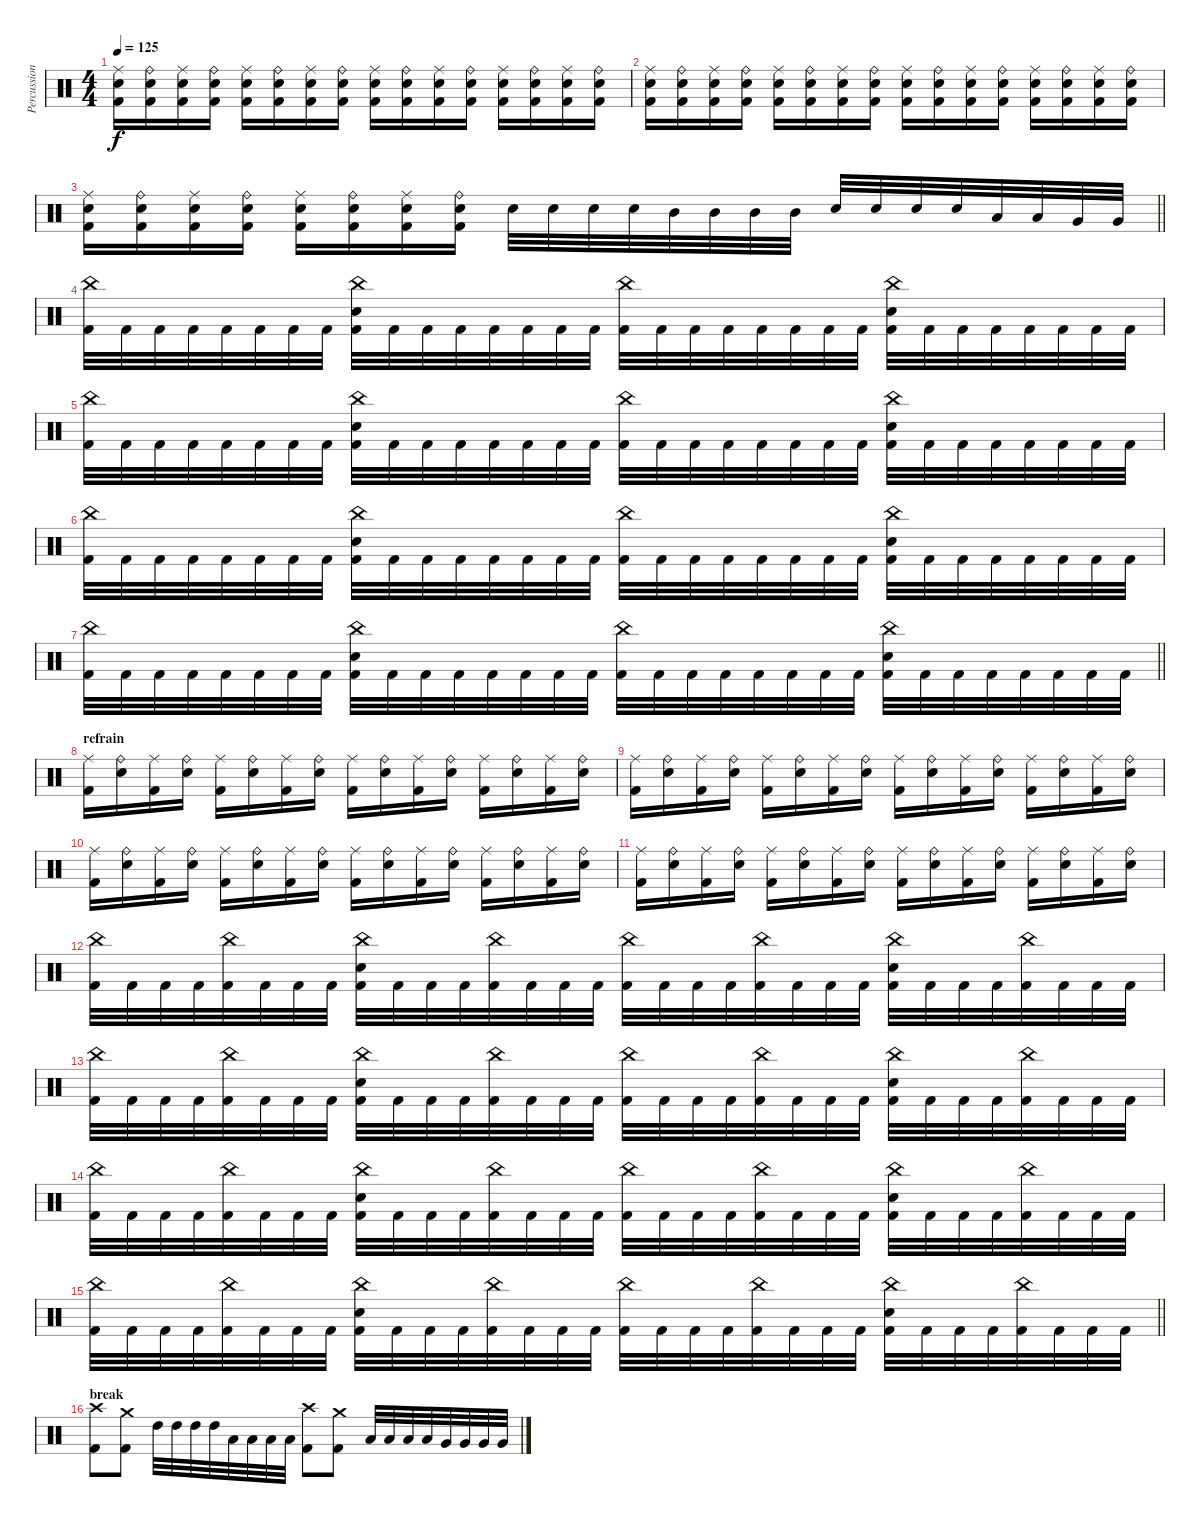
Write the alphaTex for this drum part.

\track ("Percussions" "Percussion") {instrument percussion}
\staff {score}
\articulation defaults
\ts (4 4)
\tempo 125
\clef neutral
\ks c
("Kick (hit) 2" "Electric Snare (hit)" "Ride (middle)").16{dy f} ("Kick (hit) 2" "Electric Snare (hit)" "Ride (bell)").16 ("Kick (hit) 2" "Electric Snare (hit)" "Ride (middle)").16 ("Kick (hit) 2" "Electric Snare (hit)" "Ride (bell)").16 ("Kick (hit) 2" "Electric Snare (hit)" "Ride (middle)").16 ("Kick (hit) 2" "Electric Snare (hit)" "Ride (bell)").16 ("Kick (hit) 2" "Electric Snare (hit)" "Ride (middle)").16 ("Kick (hit) 2" "Electric Snare (hit)" "Ride (bell)").16 ("Kick (hit) 2" "Electric Snare (hit)" "Ride (middle)").16 ("Kick (hit) 2" "Electric Snare (hit)" "Ride (bell)").16 ("Kick (hit) 2" "Electric Snare (hit)" "Ride (middle)").16 ("Kick (hit) 2" "Electric Snare (hit)" "Ride (bell)").16 ("Kick (hit) 2" "Electric Snare (hit)" "Ride (middle)").16 ("Kick (hit) 2" "Electric Snare (hit)" "Ride (bell)").16 ("Kick (hit) 2" "Electric Snare (hit)" "Ride (middle)").16 ("Kick (hit) 2" "Electric Snare (hit)" "Ride (bell)").16 |
("Kick (hit) 2" "Electric Snare (hit)" "Ride (middle)").16 ("Kick (hit) 2" "Electric Snare (hit)" "Ride (bell)").16 ("Kick (hit) 2" "Electric Snare (hit)" "Ride (middle)").16 ("Kick (hit) 2" "Electric Snare (hit)" "Ride (bell)").16 ("Kick (hit) 2" "Electric Snare (hit)" "Ride (middle)").16 ("Kick (hit) 2" "Electric Snare (hit)" "Ride (bell)").16 ("Kick (hit) 2" "Electric Snare (hit)" "Ride (middle)").16 ("Kick (hit) 2" "Electric Snare (hit)" "Ride (bell)").16 ("Kick (hit) 2" "Electric Snare (hit)" "Ride (middle)").16 ("Kick (hit) 2" "Electric Snare (hit)" "Ride (bell)").16 ("Kick (hit) 2" "Electric Snare (hit)" "Ride (middle)").16 ("Kick (hit) 2" "Electric Snare (hit)" "Ride (bell)").16 ("Kick (hit) 2" "Electric Snare (hit)" "Ride (middle)").16 ("Kick (hit) 2" "Electric Snare (hit)" "Ride (bell)").16 ("Kick (hit) 2" "Electric Snare (hit)" "Ride (middle)").16 ("Kick (hit) 2" "Electric Snare (hit)" "Ride (bell)").16 |
\barLineRight lightlight
("Kick (hit) 2" "Electric Snare (hit)" "Ride (middle)").16 ("Kick (hit) 2" "Electric Snare (hit)" "Ride (bell)").16 ("Kick (hit) 2" "Electric Snare (hit)" "Ride (middle)").16 ("Kick (hit) 2" "Electric Snare (hit)" "Ride (bell)").16 ("Kick (hit) 2" "Electric Snare (hit)" "Ride (middle)").16 ("Kick (hit) 2" "Electric Snare (hit)" "Ride (bell)").16 ("Kick (hit) 2" "Electric Snare (hit)" "Ride (middle)").16 ("Kick (hit) 2" "Electric Snare (hit)" "Ride (bell)").16 "Electric Snare (hit)".32 "Electric Snare (hit)".32 "Electric Snare (hit)".32 "Electric Snare (hit)".32 "Mid Tom (hit)".32 "Mid Tom (hit)".32 "Mid Tom (hit)".32 "Mid Tom (hit)".32 "Electric Snare (hit)".32 "Electric Snare (hit)".32 "Electric Snare (hit)".32 "Electric Snare (hit)".32 "Low Tom (hit)".32 "Low Tom (hit)".32 "Very Low Tom (hit)".32 "Very Low Tom (hit)".32 |
("Kick (hit) 2" "China (hit)").32 "Kick (hit) 2".32 "Kick (hit) 2".32 "Kick (hit) 2".32 "Kick (hit) 2".32 "Kick (hit) 2".32 "Kick (hit) 2".32 "Kick (hit) 2".32 ("Kick (hit) 2" "Electric Snare (hit)" "China (hit)").32 "Kick (hit) 2".32 "Kick (hit) 2".32 "Kick (hit) 2".32 "Kick (hit) 2".32 "Kick (hit) 2".32 "Kick (hit) 2".32 "Kick (hit) 2".32 ("Kick (hit) 2" "China (hit)").32 "Kick (hit) 2".32 "Kick (hit) 2".32 "Kick (hit) 2".32 "Kick (hit) 2".32 "Kick (hit) 2".32 "Kick (hit) 2".32 "Kick (hit) 2".32 ("Kick (hit) 2" "Electric Snare (hit)" "China (hit)").32 "Kick (hit) 2".32 "Kick (hit) 2".32 "Kick (hit) 2".32 "Kick (hit) 2".32 "Kick (hit) 2".32 "Kick (hit) 2".32 "Kick (hit) 2".32 |
("Kick (hit) 2" "China (hit)").32 "Kick (hit) 2".32 "Kick (hit) 2".32 "Kick (hit) 2".32 "Kick (hit) 2".32 "Kick (hit) 2".32 "Kick (hit) 2".32 "Kick (hit) 2".32 ("Kick (hit) 2" "Electric Snare (hit)" "China (hit)").32 "Kick (hit) 2".32 "Kick (hit) 2".32 "Kick (hit) 2".32 "Kick (hit) 2".32 "Kick (hit) 2".32 "Kick (hit) 2".32 "Kick (hit) 2".32 ("Kick (hit) 2" "China (hit)").32 "Kick (hit) 2".32 "Kick (hit) 2".32 "Kick (hit) 2".32 "Kick (hit) 2".32 "Kick (hit) 2".32 "Kick (hit) 2".32 "Kick (hit) 2".32 ("Kick (hit) 2" "Electric Snare (hit)" "China (hit)").32 "Kick (hit) 2".32 "Kick (hit) 2".32 "Kick (hit) 2".32 "Kick (hit) 2".32 "Kick (hit) 2".32 "Kick (hit) 2".32 "Kick (hit) 2".32 |
("Kick (hit) 2" "China (hit)").32 "Kick (hit) 2".32 "Kick (hit) 2".32 "Kick (hit) 2".32 "Kick (hit) 2".32 "Kick (hit) 2".32 "Kick (hit) 2".32 "Kick (hit) 2".32 ("Kick (hit) 2" "Electric Snare (hit)" "China (hit)").32 "Kick (hit) 2".32 "Kick (hit) 2".32 "Kick (hit) 2".32 "Kick (hit) 2".32 "Kick (hit) 2".32 "Kick (hit) 2".32 "Kick (hit) 2".32 ("Kick (hit) 2" "China (hit)").32 "Kick (hit) 2".32 "Kick (hit) 2".32 "Kick (hit) 2".32 "Kick (hit) 2".32 "Kick (hit) 2".32 "Kick (hit) 2".32 "Kick (hit) 2".32 ("Kick (hit) 2" "Electric Snare (hit)" "China (hit)").32 "Kick (hit) 2".32 "Kick (hit) 2".32 "Kick (hit) 2".32 "Kick (hit) 2".32 "Kick (hit) 2".32 "Kick (hit) 2".32 "Kick (hit) 2".32 |
\barLineRight lightlight
("Kick (hit) 2" "China (hit)").32 "Kick (hit) 2".32 "Kick (hit) 2".32 "Kick (hit) 2".32 "Kick (hit) 2".32 "Kick (hit) 2".32 "Kick (hit) 2".32 "Kick (hit) 2".32 ("Kick (hit) 2" "Electric Snare (hit)" "China (hit)").32 "Kick (hit) 2".32 "Kick (hit) 2".32 "Kick (hit) 2".32 "Kick (hit) 2".32 "Kick (hit) 2".32 "Kick (hit) 2".32 "Kick (hit) 2".32 ("Kick (hit) 2" "China (hit)").32 "Kick (hit) 2".32 "Kick (hit) 2".32 "Kick (hit) 2".32 "Kick (hit) 2".32 "Kick (hit) 2".32 "Kick (hit) 2".32 "Kick (hit) 2".32 ("Kick (hit) 2" "Electric Snare (hit)" "China (hit)").32 "Kick (hit) 2".32 "Kick (hit) 2".32 "Kick (hit) 2".32 "Kick (hit) 2".32 "Kick (hit) 2".32 "Kick (hit) 2".32 "Kick (hit) 2".32 |
\section ("" "refrain")
("Kick (hit) 2" "Ride (middle)").16 ("Electric Snare (hit)" "Ride (bell)").16 ("Kick (hit) 2" "Ride (middle)").16 ("Electric Snare (hit)" "Ride (bell)").16 ("Kick (hit) 2" "Ride (middle)").16 ("Electric Snare (hit)" "Ride (bell)").16 ("Kick (hit) 2" "Ride (middle)").16 ("Electric Snare (hit)" "Ride (bell)").16 ("Kick (hit) 2" "Ride (middle)").16 ("Electric Snare (hit)" "Ride (bell)").16 ("Kick (hit) 2" "Ride (middle)").16 ("Electric Snare (hit)" "Ride (bell)").16 ("Kick (hit) 2" "Ride (middle)").16 ("Electric Snare (hit)" "Ride (bell)").16 ("Kick (hit) 2" "Ride (middle)").16 ("Electric Snare (hit)" "Ride (bell)").16 |
("Kick (hit) 2" "Ride (middle)").16 ("Electric Snare (hit)" "Ride (bell)").16 ("Kick (hit) 2" "Ride (middle)").16 ("Electric Snare (hit)" "Ride (bell)").16 ("Kick (hit) 2" "Ride (middle)").16 ("Electric Snare (hit)" "Ride (bell)").16 ("Kick (hit) 2" "Ride (middle)").16 ("Electric Snare (hit)" "Ride (bell)").16 ("Kick (hit) 2" "Ride (middle)").16 ("Electric Snare (hit)" "Ride (bell)").16 ("Kick (hit) 2" "Ride (middle)").16 ("Electric Snare (hit)" "Ride (bell)").16 ("Kick (hit) 2" "Ride (middle)").16 ("Electric Snare (hit)" "Ride (bell)").16 ("Kick (hit) 2" "Ride (middle)").16 ("Electric Snare (hit)" "Ride (bell)").16 |
("Kick (hit) 2" "Ride (middle)").16 ("Electric Snare (hit)" "Ride (bell)").16 ("Kick (hit) 2" "Ride (middle)").16 ("Electric Snare (hit)" "Ride (bell)").16 ("Kick (hit) 2" "Ride (middle)").16 ("Electric Snare (hit)" "Ride (bell)").16 ("Kick (hit) 2" "Ride (middle)").16 ("Electric Snare (hit)" "Ride (bell)").16 ("Kick (hit) 2" "Ride (middle)").16 ("Electric Snare (hit)" "Ride (bell)").16 ("Kick (hit) 2" "Ride (middle)").16 ("Electric Snare (hit)" "Ride (bell)").16 ("Kick (hit) 2" "Ride (middle)").16 ("Electric Snare (hit)" "Ride (bell)").16 ("Kick (hit) 2" "Ride (middle)").16 ("Electric Snare (hit)" "Ride (bell)").16 |
("Kick (hit) 2" "Ride (middle)").16 ("Electric Snare (hit)" "Ride (bell)").16 ("Kick (hit) 2" "Ride (middle)").16 ("Electric Snare (hit)" "Ride (bell)").16 ("Kick (hit) 2" "Ride (middle)").16 ("Electric Snare (hit)" "Ride (bell)").16 ("Kick (hit) 2" "Ride (middle)").16 ("Electric Snare (hit)" "Ride (bell)").16 ("Kick (hit) 2" "Ride (middle)").16 ("Electric Snare (hit)" "Ride (bell)").16 ("Kick (hit) 2" "Ride (middle)").16 ("Electric Snare (hit)" "Ride (bell)").16 ("Kick (hit) 2" "Ride (middle)").16 ("Electric Snare (hit)" "Ride (bell)").16 ("Kick (hit) 2" "Ride (middle)").16 ("Electric Snare (hit)" "Ride (bell)").16 |
("Kick (hit) 2" "China (hit)").32 "Kick (hit) 2".32 "Kick (hit) 2".32 "Kick (hit) 2".32 ("Kick (hit) 2" "China (hit)").32 "Kick (hit) 2".32 "Kick (hit) 2".32 "Kick (hit) 2".32 ("Kick (hit) 2" "Electric Snare (hit)" "China (hit)").32 "Kick (hit) 2".32 "Kick (hit) 2".32 "Kick (hit) 2".32 ("Kick (hit) 2" "China (hit)").32 "Kick (hit) 2".32 "Kick (hit) 2".32 "Kick (hit) 2".32 ("Kick (hit) 2" "China (hit)").32 "Kick (hit) 2".32 "Kick (hit) 2".32 "Kick (hit) 2".32 ("Kick (hit) 2" "China (hit)").32 "Kick (hit) 2".32 "Kick (hit) 2".32 "Kick (hit) 2".32 ("Kick (hit) 2" "Electric Snare (hit)" "China (hit)").32 "Kick (hit) 2".32 "Kick (hit) 2".32 "Kick (hit) 2".32 ("Kick (hit) 2" "China (hit)").32 "Kick (hit) 2".32 "Kick (hit) 2".32 "Kick (hit) 2".32 |
("Kick (hit) 2" "China (hit)").32 "Kick (hit) 2".32 "Kick (hit) 2".32 "Kick (hit) 2".32 ("Kick (hit) 2" "China (hit)").32 "Kick (hit) 2".32 "Kick (hit) 2".32 "Kick (hit) 2".32 ("Kick (hit) 2" "Electric Snare (hit)" "China (hit)").32 "Kick (hit) 2".32 "Kick (hit) 2".32 "Kick (hit) 2".32 ("Kick (hit) 2" "China (hit)").32 "Kick (hit) 2".32 "Kick (hit) 2".32 "Kick (hit) 2".32 ("Kick (hit) 2" "China (hit)").32 "Kick (hit) 2".32 "Kick (hit) 2".32 "Kick (hit) 2".32 ("Kick (hit) 2" "China (hit)").32 "Kick (hit) 2".32 "Kick (hit) 2".32 "Kick (hit) 2".32 ("Kick (hit) 2" "Electric Snare (hit)" "China (hit)").32 "Kick (hit) 2".32 "Kick (hit) 2".32 "Kick (hit) 2".32 ("Kick (hit) 2" "China (hit)").32 "Kick (hit) 2".32 "Kick (hit) 2".32 "Kick (hit) 2".32 |
("Kick (hit) 2" "China (hit)").32 "Kick (hit) 2".32 "Kick (hit) 2".32 "Kick (hit) 2".32 ("Kick (hit) 2" "China (hit)").32 "Kick (hit) 2".32 "Kick (hit) 2".32 "Kick (hit) 2".32 ("Kick (hit) 2" "Electric Snare (hit)" "China (hit)").32 "Kick (hit) 2".32 "Kick (hit) 2".32 "Kick (hit) 2".32 ("Kick (hit) 2" "China (hit)").32 "Kick (hit) 2".32 "Kick (hit) 2".32 "Kick (hit) 2".32 ("Kick (hit) 2" "China (hit)").32 "Kick (hit) 2".32 "Kick (hit) 2".32 "Kick (hit) 2".32 ("Kick (hit) 2" "China (hit)").32 "Kick (hit) 2".32 "Kick (hit) 2".32 "Kick (hit) 2".32 ("Kick (hit) 2" "Electric Snare (hit)" "China (hit)").32 "Kick (hit) 2".32 "Kick (hit) 2".32 "Kick (hit) 2".32 ("Kick (hit) 2" "China (hit)").32 "Kick (hit) 2".32 "Kick (hit) 2".32 "Kick (hit) 2".32 |
\barLineRight lightlight
("Kick (hit) 2" "China (hit)").32 "Kick (hit) 2".32 "Kick (hit) 2".32 "Kick (hit) 2".32 ("Kick (hit) 2" "China (hit)").32 "Kick (hit) 2".32 "Kick (hit) 2".32 "Kick (hit) 2".32 ("Kick (hit) 2" "Electric Snare (hit)" "China (hit)").32 "Kick (hit) 2".32 "Kick (hit) 2".32 "Kick (hit) 2".32 ("Kick (hit) 2" "China (hit)").32 "Kick (hit) 2".32 "Kick (hit) 2".32 "Kick (hit) 2".32 ("Kick (hit) 2" "China (hit)").32 "Kick (hit) 2".32 "Kick (hit) 2".32 "Kick (hit) 2".32 ("Kick (hit) 2" "China (hit)").32 "Kick (hit) 2".32 "Kick (hit) 2".32 "Kick (hit) 2".32 ("Kick (hit) 2" "Electric Snare (hit)" "China (hit)").32 "Kick (hit) 2".32 "Kick (hit) 2".32 "Kick (hit) 2".32 ("Kick (hit) 2" "China (hit)").32 "Kick (hit) 2".32 "Kick (hit) 2".32 "Kick (hit) 2".32 |
\section ("" "break")
("Kick (hit) 2" "Crash high (hit)").8 ("Kick (hit) 2" "Crash medium (hit)").8 "High Tom (hit)".32 "High Tom (hit)".32 "High Tom (hit)".32 "High Tom (hit)".32 "Low Tom (hit)".32 "Low Tom (hit)".32 "Low Tom (hit)".32 "Low Tom (hit)".32 ("Kick (hit) 2" "Crash high (hit)").8 ("Kick (hit) 2" "Crash medium (hit)").8 "Low Tom (hit)".32 "Low Tom (hit)".32 "Low Tom (hit)".32 "Low Tom (hit)".32 "Very Low Tom (hit)".32 "Very Low Tom (hit)".32 "Very Low Tom (hit)".32 "Very Low Tom (hit)".32
